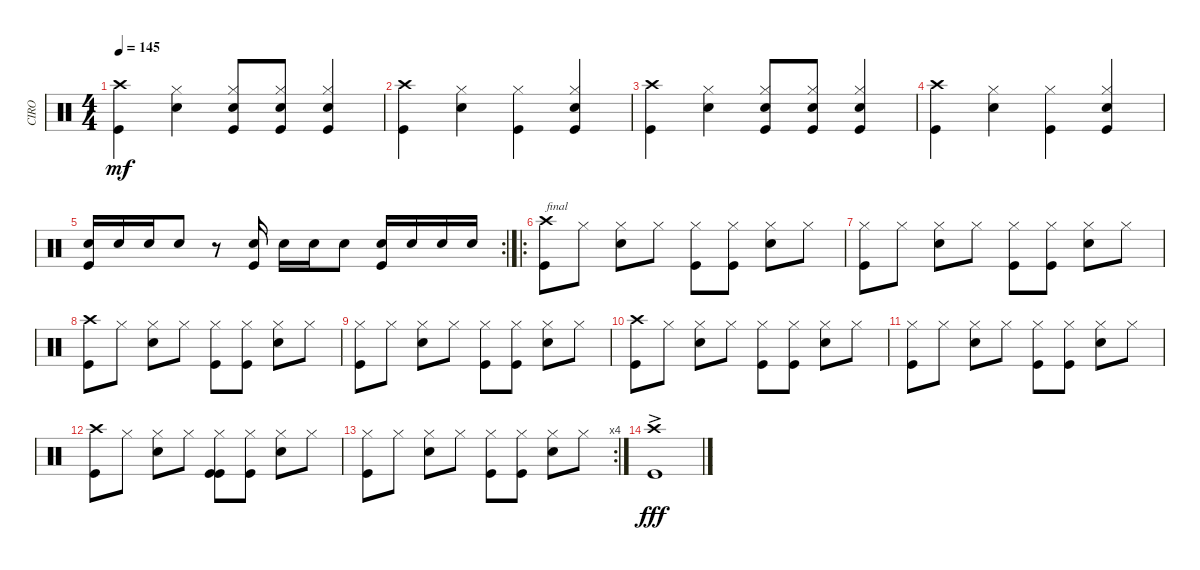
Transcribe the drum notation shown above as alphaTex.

\track ("CIRO" "CIRO") {instrument percussion}
\staff {score}
\articulation defaults
\ts (4 4)
\tempo 145
\clef neutral
\ks c
("Crash high (hit)" "Kick (hit)").4{dy mf} ("Hi-Hat (closed)" "Snare (hit) 2").4 ("Hi-Hat (closed)" "Snare (hit) 2" "Kick (hit)").8 ("Hi-Hat (closed)" "Snare (hit) 2" "Kick (hit)").8 ("Hi-Hat (closed)" "Snare (hit) 2" "Kick (hit)").4 |
("Crash high (hit)" "Kick (hit)").4 ("Hi-Hat (closed)" "Snare (hit) 2").4 ("Hi-Hat (closed)" "Kick (hit)").4 ("Hi-Hat (closed)" "Snare (hit) 2" "Kick (hit)").4 |
("Crash high (hit)" "Kick (hit)").4 ("Hi-Hat (closed)" "Snare (hit) 2").4 ("Hi-Hat (closed)" "Snare (hit) 2" "Kick (hit)").8 ("Hi-Hat (closed)" "Snare (hit) 2" "Kick (hit)").8 ("Hi-Hat (closed)" "Snare (hit) 2" "Kick (hit)").4 |
("Crash high (hit)" "Kick (hit)").4 ("Hi-Hat (closed)" "Snare (hit) 2").4 ("Hi-Hat (closed)" "Kick (hit)").4 ("Hi-Hat (closed)" "Snare (hit) 2" "Kick (hit)").4 |
\rc 2
("Snare (hit) 2" "Kick (hit)").16 "Snare (hit) 2".16 "Snare (hit) 2".16 "Snare (hit) 2".8 r.8 ("Snare (hit) 2" "Kick (hit)").16 "Snare (hit) 2".16 "Snare (hit) 2".16 "Snare (hit) 2".8 ("Snare (hit) 2" "Kick (hit)").16 "Snare (hit) 2".16 "Snare (hit) 2".16 "Snare (hit) 2".16 |
\ro
("Crash high (hit)" "Kick (hit)").8{txt "final"} "Hi-Hat (closed)".8 ("Hi-Hat (closed)" "Snare (hit) 2").8 "Hi-Hat (closed)".8 ("Hi-Hat (closed)" "Kick (hit)").8 ("Hi-Hat (closed)" "Kick (hit)").8 ("Hi-Hat (closed)" "Snare (hit) 2").8 "Hi-Hat (closed)".8 |
("Hi-Hat (closed)" "Kick (hit)").8 "Hi-Hat (closed)".8 ("Hi-Hat (closed)" "Snare (hit) 2").8 "Hi-Hat (closed)".8 ("Hi-Hat (closed)" "Kick (hit)").8 ("Hi-Hat (closed)" "Kick (hit)").8 ("Hi-Hat (closed)" "Snare (hit) 2").8 "Hi-Hat (closed)".8 |
("Crash high (hit)" "Kick (hit)").8 "Hi-Hat (closed)".8 ("Hi-Hat (closed)" "Snare (hit) 2").8 "Hi-Hat (closed)".8 ("Hi-Hat (closed)" "Kick (hit)").8 ("Hi-Hat (closed)" "Kick (hit)").8 ("Hi-Hat (closed)" "Snare (hit) 2").8 "Hi-Hat (closed)".8 |
("Hi-Hat (closed)" "Kick (hit)").8 "Hi-Hat (closed)".8 ("Hi-Hat (closed)" "Snare (hit) 2").8 "Hi-Hat (closed)".8 ("Hi-Hat (closed)" "Kick (hit)").8 ("Hi-Hat (closed)" "Kick (hit)").8 ("Hi-Hat (closed)" "Snare (hit) 2").8 "Hi-Hat (closed)".8 |
("Crash high (hit)" "Kick (hit)").8 "Hi-Hat (closed)".8 ("Hi-Hat (closed)" "Snare (hit) 2").8 "Hi-Hat (closed)".8 ("Hi-Hat (closed)" "Kick (hit)").8 ("Hi-Hat (closed)" "Kick (hit)").8 ("Hi-Hat (closed)" "Snare (hit) 2").8 "Hi-Hat (closed)".8 |
("Hi-Hat (closed)" "Kick (hit)").8 "Hi-Hat (closed)".8 ("Hi-Hat (closed)" "Snare (hit) 2").8 "Hi-Hat (closed)".8 ("Hi-Hat (closed)" "Kick (hit)").8 ("Hi-Hat (closed)" "Kick (hit)").8 ("Hi-Hat (closed)" "Snare (hit) 2").8 "Hi-Hat (closed)".8 |
("Crash high (hit)" "Kick (hit)").8 "Hi-Hat (closed)".8 ("Hi-Hat (closed)" "Snare (hit) 2").8 "Hi-Hat (closed)".8 ("Hi-Hat (closed)" "Kick (hit)" "Kick (hit)").8 ("Hi-Hat (closed)" "Kick (hit)").8 ("Hi-Hat (closed)" "Snare (hit) 2").8 "Hi-Hat (closed)".8 |
\rc 4
("Hi-Hat (closed)" "Kick (hit)").8 "Hi-Hat (closed)".8 ("Hi-Hat (closed)" "Snare (hit) 2").8 "Hi-Hat (closed)".8 ("Hi-Hat (closed)" "Kick (hit)").8 ("Hi-Hat (closed)" "Kick (hit)").8 ("Hi-Hat (closed)" "Snare (hit) 2").8 "Hi-Hat (closed)".8 |
("Crash high (hit)"{ac} "Kick (hit)"{ac}).1{dy fff}
